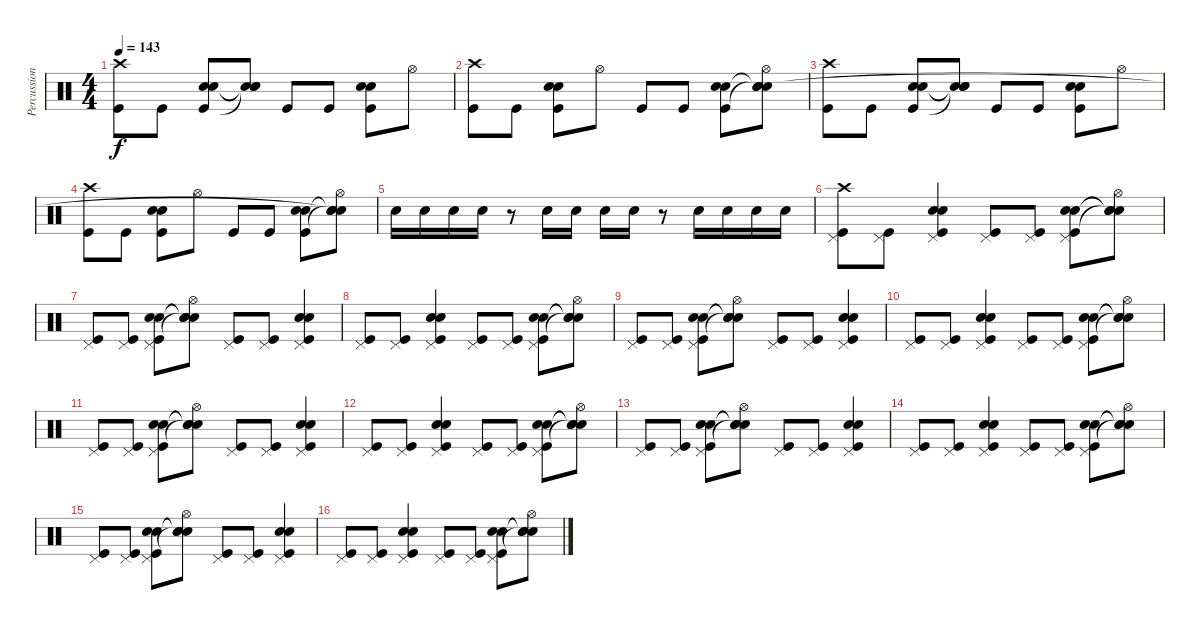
\track ("Percussions" "Percussion") {instrument percussion}
\staff {score}
\articulation defaults
\ts (4 4)
\tempo 143
\clef neutral
\ks c
("Crash high (hit)" "Kick (hit)").8{dy f} "Kick (hit)".8 ("Snare (hit) 2" "Snare (hit) 2" "Kick (hit)").8 ("Snare (hit)"{t} "Snare (hit)"{t} "Snare (hit)"{t}).8 "Kick (hit)".8 "Kick (hit)".8 ("Snare (hit) 2" "Snare (hit) 2" "Kick (hit)").8 "Hi-Hat (open)".8 |
("Crash high (hit)" "Kick (hit)").8 "Kick (hit)".8 ("Snare (hit) 2" "Snare (hit) 2" "Kick (hit)").8 "Hi-Hat (open)".8 "Kick (hit)".8 "Kick (hit)".8 ("Snare (hit) 2" "Snare (hit) 2" "Kick (hit)").8 ("Hi-Hat (open)" "Snare (hit)"{t} "Snare (hit)"{t} "Snare (hit)").8 |
("Crash high (hit)" "Kick (hit)").8 "Kick (hit)".8 ("Snare (hit) 2" "Snare (hit) 2" "Kick (hit)").8 ("Snare (hit)"{t} "Snare (hit)"{t} "Snare (hit)"{t}).8 "Kick (hit)".8 "Kick (hit)".8 ("Snare (hit) 2" "Snare (hit) 2" "Kick (hit)").8 "Hi-Hat (open)".8 |
("Crash high (hit)" "Kick (hit)").8 "Kick (hit)".8 ("Snare (hit) 2" "Snare (hit) 2" "Kick (hit)").8 "Hi-Hat (open)".8 "Kick (hit)".8 "Kick (hit)".8 ("Snare (hit) 2" "Snare (hit) 2" "Kick (hit)").8 ("Hi-Hat (open)" "Snare (hit)"{t} "Snare (hit)"{t} "Snare (hit)"{t}).8 |
"Snare (hit) 2".16 "Snare (hit) 2".16 "Snare (hit) 2".16 "Snare (hit) 2".16 r.8 "Snare (hit) 2".16 "Snare (hit) 2".16 "Snare (hit) 2".16 "Snare (hit) 2".16 r.8 "Snare (hit) 2".16 "Snare (hit) 2".16 "Snare (hit) 2".16 "Snare (hit) 2".16 |
("Pedal Hi-Hat (hit)" "Crash high (hit)" "Kick (hit)").8 ("Pedal Hi-Hat (hit)" "Kick (hit)").8 ("Pedal Hi-Hat (hit)" "Snare (hit) 2" "Snare (hit) 2" "Kick (hit)").4 ("Pedal Hi-Hat (hit)" "Kick (hit)").8 ("Pedal Hi-Hat (hit)" "Kick (hit)").8 ("Pedal Hi-Hat (hit)" "Snare (hit) 2" "Snare (hit) 2" "Kick (hit)").8 ("Hi-Hat (open)" "Snare (hit)"{t} "Snare (hit)"{t} "Snare (hit)"{t}).8 |
("Pedal Hi-Hat (hit)" "Kick (hit)").8 ("Pedal Hi-Hat (hit)" "Kick (hit)").8 ("Pedal Hi-Hat (hit)" "Snare (hit) 2" "Snare (hit) 2" "Kick (hit)").8 ("Hi-Hat (open)" "Snare (hit)"{t} "Snare (hit)"{t} "Snare (hit)"{t}).8 ("Pedal Hi-Hat (hit)" "Kick (hit)").8 ("Pedal Hi-Hat (hit)" "Kick (hit)").8 ("Pedal Hi-Hat (hit)" "Snare (hit) 2" "Snare (hit) 2" "Kick (hit)").4 |
("Pedal Hi-Hat (hit)" "Kick (hit)").8 ("Pedal Hi-Hat (hit)" "Kick (hit)").8 ("Pedal Hi-Hat (hit)" "Snare (hit) 2" "Snare (hit) 2" "Kick (hit)").4 ("Pedal Hi-Hat (hit)" "Kick (hit)").8 ("Pedal Hi-Hat (hit)" "Kick (hit)").8 ("Pedal Hi-Hat (hit)" "Snare (hit) 2" "Snare (hit) 2" "Kick (hit)").8 ("Hi-Hat (open)" "Snare (hit)"{t} "Snare (hit)"{t} "Snare (hit)"{t}).8 |
("Pedal Hi-Hat (hit)" "Kick (hit)").8 ("Pedal Hi-Hat (hit)" "Kick (hit)").8 ("Pedal Hi-Hat (hit)" "Snare (hit) 2" "Snare (hit) 2" "Kick (hit)").8 ("Hi-Hat (open)" "Snare (hit)"{t} "Snare (hit)"{t} "Snare (hit)"{t}).8 ("Pedal Hi-Hat (hit)" "Kick (hit)").8 ("Pedal Hi-Hat (hit)" "Kick (hit)").8 ("Pedal Hi-Hat (hit)" "Snare (hit) 2" "Snare (hit) 2" "Kick (hit)").4 |
("Pedal Hi-Hat (hit)" "Kick (hit)").8 ("Pedal Hi-Hat (hit)" "Kick (hit)").8 ("Pedal Hi-Hat (hit)" "Snare (hit) 2" "Snare (hit) 2" "Kick (hit)").4 ("Pedal Hi-Hat (hit)" "Kick (hit)").8 ("Pedal Hi-Hat (hit)" "Kick (hit)").8 ("Pedal Hi-Hat (hit)" "Snare (hit) 2" "Snare (hit) 2" "Kick (hit)").8 ("Hi-Hat (open)" "Snare (hit)"{t} "Snare (hit)"{t} "Snare (hit)"{t}).8 |
("Pedal Hi-Hat (hit)" "Kick (hit)").8 ("Pedal Hi-Hat (hit)" "Kick (hit)").8 ("Pedal Hi-Hat (hit)" "Snare (hit) 2" "Snare (hit) 2" "Kick (hit)").8 ("Hi-Hat (open)" "Snare (hit)"{t} "Snare (hit)"{t} "Snare (hit)"{t}).8 ("Pedal Hi-Hat (hit)" "Kick (hit)").8 ("Pedal Hi-Hat (hit)" "Kick (hit)").8 ("Pedal Hi-Hat (hit)" "Snare (hit) 2" "Snare (hit) 2" "Kick (hit)").4 |
("Pedal Hi-Hat (hit)" "Kick (hit)").8 ("Pedal Hi-Hat (hit)" "Kick (hit)").8 ("Pedal Hi-Hat (hit)" "Snare (hit) 2" "Snare (hit) 2" "Kick (hit)").4 ("Pedal Hi-Hat (hit)" "Kick (hit)").8 ("Pedal Hi-Hat (hit)" "Kick (hit)").8 ("Pedal Hi-Hat (hit)" "Snare (hit) 2" "Snare (hit) 2" "Kick (hit)").8 ("Hi-Hat (open)" "Snare (hit)"{t} "Snare (hit)"{t} "Snare (hit)"{t}).8 |
("Pedal Hi-Hat (hit)" "Kick (hit)").8 ("Pedal Hi-Hat (hit)" "Kick (hit)").8 ("Pedal Hi-Hat (hit)" "Snare (hit) 2" "Snare (hit) 2" "Kick (hit)").8 ("Hi-Hat (open)" "Snare (hit)"{t} "Snare (hit)"{t} "Snare (hit)"{t}).8 ("Pedal Hi-Hat (hit)" "Kick (hit)").8 ("Pedal Hi-Hat (hit)" "Kick (hit)").8 ("Pedal Hi-Hat (hit)" "Snare (hit) 2" "Snare (hit) 2" "Kick (hit)").4 |
("Pedal Hi-Hat (hit)" "Kick (hit)").8 ("Pedal Hi-Hat (hit)" "Kick (hit)").8 ("Pedal Hi-Hat (hit)" "Snare (hit) 2" "Snare (hit) 2" "Kick (hit)").4 ("Pedal Hi-Hat (hit)" "Kick (hit)").8 ("Pedal Hi-Hat (hit)" "Kick (hit)").8 ("Pedal Hi-Hat (hit)" "Snare (hit) 2" "Snare (hit) 2" "Kick (hit)").8 ("Hi-Hat (open)" "Snare (hit)"{t} "Snare (hit)"{t} "Snare (hit)"{t}).8 |
("Pedal Hi-Hat (hit)" "Kick (hit)").8 ("Pedal Hi-Hat (hit)" "Kick (hit)").8 ("Pedal Hi-Hat (hit)" "Snare (hit) 2" "Snare (hit) 2" "Kick (hit)").8 ("Hi-Hat (open)" "Snare (hit)"{t} "Snare (hit)"{t} "Snare (hit)"{t}).8 ("Pedal Hi-Hat (hit)" "Kick (hit)").8 ("Pedal Hi-Hat (hit)" "Kick (hit)").8 ("Pedal Hi-Hat (hit)" "Snare (hit) 2" "Snare (hit) 2" "Kick (hit)").4 |
("Pedal Hi-Hat (hit)" "Kick (hit)").8 ("Pedal Hi-Hat (hit)" "Kick (hit)").8 ("Pedal Hi-Hat (hit)" "Snare (hit) 2" "Snare (hit) 2" "Kick (hit)").4 ("Pedal Hi-Hat (hit)" "Kick (hit)").8 ("Pedal Hi-Hat (hit)" "Kick (hit)").8 ("Pedal Hi-Hat (hit)" "Snare (hit) 2" "Snare (hit) 2" "Kick (hit)").8 ("Hi-Hat (open)" "Snare (hit)"{t} "Snare (hit)"{t} "Snare (hit)"{t}).8
